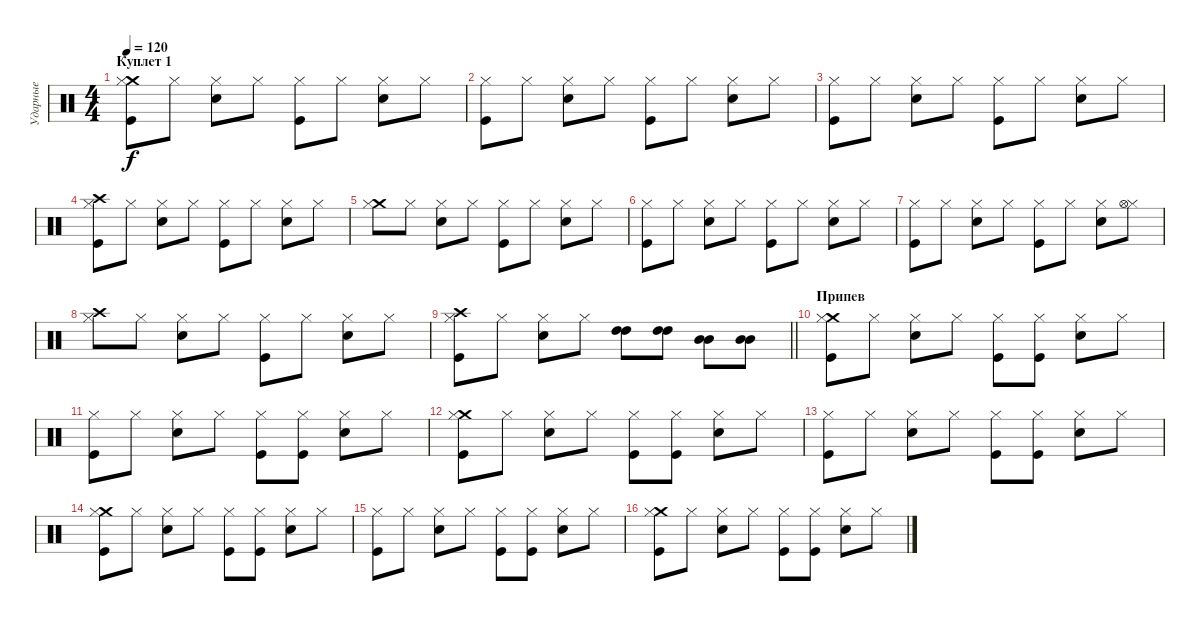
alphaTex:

\track ("Ударные" "Ударные") {instrument percussion}
\staff {score}
\articulation defaults
\ts (4 4)
\section ("" "Куплет 1")
\tempo 120
\clef neutral
\ks c
("Crash medium (hit)" "Hi-Hat (closed)" "Kick (hit)").8{dy f} "Hi-Hat (closed)".8 ("Snare (hit) 2" "Hi-Hat (closed)").8 "Hi-Hat (closed)".8 ("Kick (hit)" "Hi-Hat (closed)").8 "Hi-Hat (closed)".8 ("Snare (hit) 2" "Hi-Hat (closed)").8 "Hi-Hat (closed)".8 |
("Kick (hit)" "Hi-Hat (closed)").8 "Hi-Hat (closed)".8 ("Snare (hit) 2" "Hi-Hat (closed)").8 "Hi-Hat (closed)".8 ("Kick (hit)" "Hi-Hat (closed)").8 "Hi-Hat (closed)".8 ("Snare (hit) 2" "Hi-Hat (closed)").8 "Hi-Hat (closed)".8 |
("Hi-Hat (closed)" "Kick (hit)").8 "Hi-Hat (closed)".8 ("Snare (hit) 2" "Hi-Hat (closed)").8 "Hi-Hat (closed)".8 ("Kick (hit)" "Hi-Hat (closed)").8 "Hi-Hat (closed)".8 ("Snare (hit) 2" "Hi-Hat (closed)").8 "Hi-Hat (closed)".8 |
("Kick (hit)" "Hi-Hat (closed)" "Crash high (hit)").8 "Hi-Hat (closed)".8 ("Snare (hit) 2" "Hi-Hat (closed)").8 "Hi-Hat (closed)".8 ("Kick (hit)" "Hi-Hat (closed)").8 "Hi-Hat (closed)".8 ("Snare (hit) 2" "Hi-Hat (closed)").8 "Hi-Hat (closed)".8 |
("Crash medium (hit)" "Hi-Hat (closed)").8 "Hi-Hat (closed)".8 ("Snare (hit) 2" "Hi-Hat (closed)").8 "Hi-Hat (closed)".8 ("Kick (hit)" "Hi-Hat (closed)").8 "Hi-Hat (closed)".8 ("Snare (hit) 2" "Hi-Hat (closed)").8 "Hi-Hat (closed)".8 |
("Kick (hit)" "Hi-Hat (closed)").8 "Hi-Hat (closed)".8 ("Snare (hit) 2" "Hi-Hat (closed)").8 "Hi-Hat (closed)".8 ("Kick (hit)" "Hi-Hat (closed)").8 "Hi-Hat (closed)".8 ("Snare (hit) 2" "Hi-Hat (closed)").8 "Hi-Hat (closed)".8 |
("Hi-Hat (closed)" "Kick (hit)").8 "Hi-Hat (closed)".8 ("Snare (hit) 2" "Hi-Hat (closed)").8 "Hi-Hat (closed)".8 ("Kick (hit)" "Hi-Hat (closed)").8 "Hi-Hat (closed)".8 ("Snare (hit) 2" "Hi-Hat (closed)").8 ("Hi-Hat (closed)" "Hi-Hat (open)").8 |
("Hi-Hat (closed)" "Crash high (hit)").8 "Hi-Hat (closed)".8 ("Snare (hit) 2" "Hi-Hat (closed)").8 "Hi-Hat (closed)".8 ("Kick (hit)" "Hi-Hat (closed)").8 "Hi-Hat (closed)".8 ("Snare (hit) 2" "Hi-Hat (closed)").8 "Hi-Hat (closed)".8 |
\barLineRight lightlight
("Kick (hit)" "Hi-Hat (closed)" "Crash high (hit)").8 "Hi-Hat (closed)".8 ("Snare (hit) 2" "Hi-Hat (closed)").8 "Hi-Hat (closed)".8 ("High Tom (hit)" "High Tom (hit)").8 ("High Tom (hit)" "High Tom (hit)").8 ("Mid Tom (hit)" "Mid Tom (hit)").8 ("Mid Tom (hit)" "Mid Tom (hit)").8 |
\section ("" "Припев")
("Crash medium (hit)" "Hi-Hat (closed)" "Kick (hit)").8 "Hi-Hat (closed)".8 ("Snare (hit) 2" "Hi-Hat (closed)").8 "Hi-Hat (closed)".8 ("Kick (hit)" "Hi-Hat (closed)").8 ("Kick (hit)" "Hi-Hat (closed)").8 ("Snare (hit) 2" "Hi-Hat (closed)").8 "Hi-Hat (closed)".8 |
("Kick (hit)" "Hi-Hat (closed)").8 "Hi-Hat (closed)".8 ("Snare (hit) 2" "Hi-Hat (closed)").8 "Hi-Hat (closed)".8 ("Kick (hit)" "Hi-Hat (closed)").8 ("Kick (hit)" "Hi-Hat (closed)").8 ("Snare (hit) 2" "Hi-Hat (closed)").8 "Hi-Hat (closed)".8 |
("Crash medium (hit)" "Hi-Hat (closed)" "Kick (hit)").8 "Hi-Hat (closed)".8 ("Snare (hit) 2" "Hi-Hat (closed)").8 "Hi-Hat (closed)".8 ("Kick (hit)" "Hi-Hat (closed)").8 ("Kick (hit)" "Hi-Hat (closed)").8 ("Snare (hit) 2" "Hi-Hat (closed)").8 "Hi-Hat (closed)".8 |
("Kick (hit)" "Hi-Hat (closed)").8 "Hi-Hat (closed)".8 ("Snare (hit) 2" "Hi-Hat (closed)").8 "Hi-Hat (closed)".8 ("Kick (hit)" "Hi-Hat (closed)").8 ("Kick (hit)" "Hi-Hat (closed)").8 ("Snare (hit) 2" "Hi-Hat (closed)").8 "Hi-Hat (closed)".8 |
("Crash medium (hit)" "Hi-Hat (closed)" "Kick (hit)").8 "Hi-Hat (closed)".8 ("Snare (hit) 2" "Hi-Hat (closed)").8 "Hi-Hat (closed)".8 ("Kick (hit)" "Hi-Hat (closed)").8 ("Kick (hit)" "Hi-Hat (closed)").8 ("Snare (hit) 2" "Hi-Hat (closed)").8 "Hi-Hat (closed)".8 |
("Kick (hit)" "Hi-Hat (closed)").8 "Hi-Hat (closed)".8 ("Snare (hit) 2" "Hi-Hat (closed)").8 "Hi-Hat (closed)".8 ("Kick (hit)" "Hi-Hat (closed)").8 ("Kick (hit)" "Hi-Hat (closed)").8 ("Snare (hit) 2" "Hi-Hat (closed)").8 "Hi-Hat (closed)".8 |
("Crash medium (hit)" "Hi-Hat (closed)" "Kick (hit)").8 "Hi-Hat (closed)".8 ("Snare (hit) 2" "Hi-Hat (closed)").8 "Hi-Hat (closed)".8 ("Kick (hit)" "Hi-Hat (closed)").8 ("Kick (hit)" "Hi-Hat (closed)").8 ("Snare (hit) 2" "Hi-Hat (closed)").8 "Hi-Hat (closed)".8
